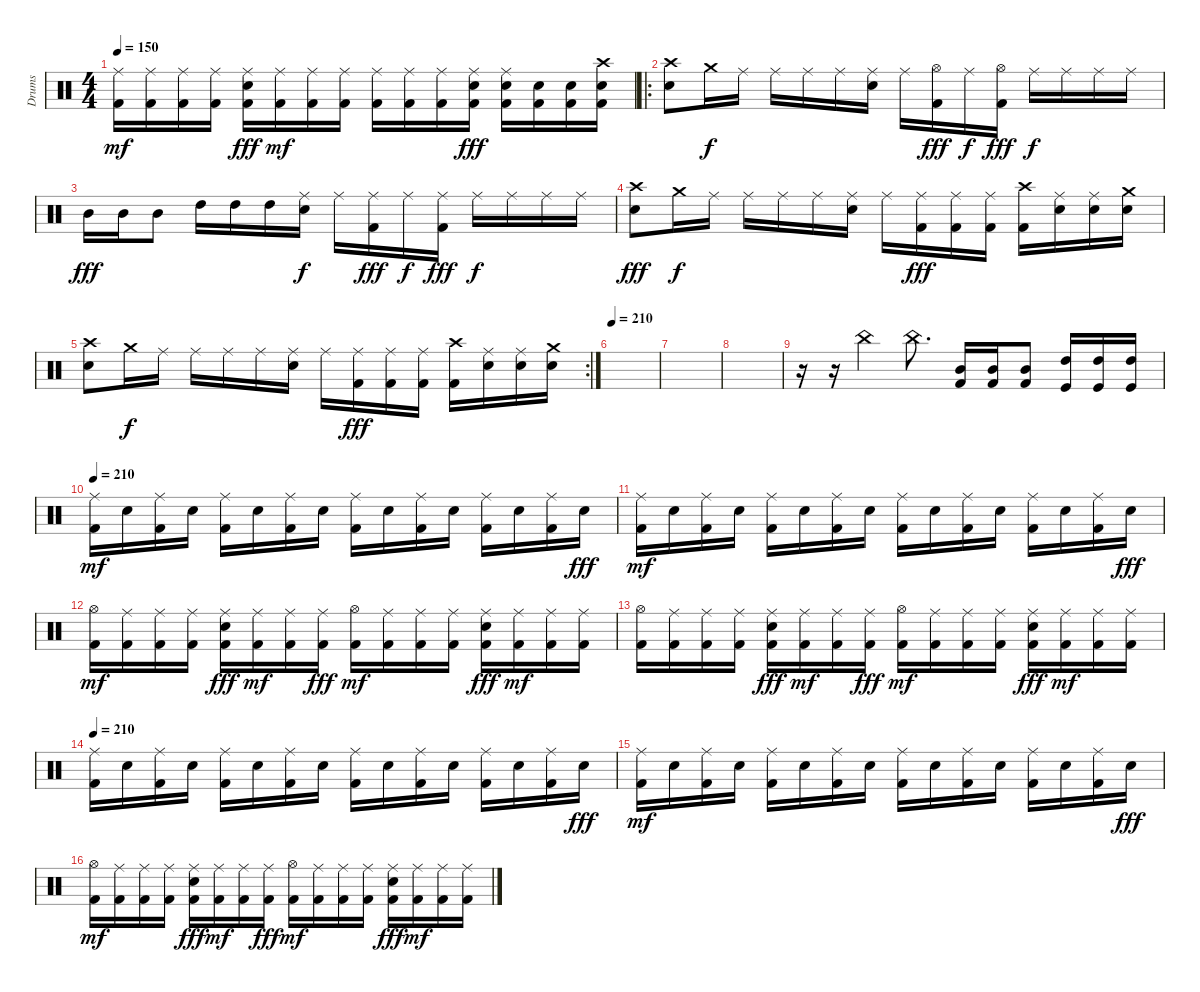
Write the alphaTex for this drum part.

\track ("Drums" "Drums") {instrument percussion}
\staff {score}
\articulation defaults
\ts (4 4)
\tempo 150
\clef neutral
\ks c
("Ride (middle)" "Kick (hit) 2").16{dy mf} ("Ride (middle)" "Kick (hit) 2").16 ("Ride (middle)" "Kick (hit) 2").16 ("Ride (middle)" "Kick (hit) 2").16 ("Ride (middle)" "Snare (hit) 2" "Kick (hit) 2").16{dy fff} ("Ride (middle)" "Kick (hit) 2").16{dy mf} ("Ride (middle)" "Kick (hit) 2").16 ("Ride (middle)" "Kick (hit) 2").16 ("Ride (middle)" "Kick (hit) 2").16 ("Ride (middle)" "Kick (hit) 2").16 ("Ride (middle)" "Kick (hit) 2").16 ("Ride (middle)" "Electric Snare (hit)" "Kick (hit) 2").16{dy fff} ("Ride (middle)" "Electric Snare (hit)" "Kick (hit) 2").16 ("Electric Snare (hit)" "Kick (hit) 2").16 ("Electric Snare (hit)" "Kick (hit) 2").16 ("Crash high (hit)" "Electric Snare (hit)" "Kick (hit) 2").16 |
\ro
("Crash high (hit)" "Snare (hit) 2").8 "Crash medium (hit)".16{dy f} "Ride (middle)".16 "Ride (middle)".16 "Ride (middle)".16 "Ride (middle)".16 ("Ride (middle)" "Snare (hit) 2").16 "Ride (middle)".16 ("Hi-Hat (open)" "Kick (hit) 2").16{dy fff} "Ride (middle)".16{dy f} ("Hi-Hat (open)" "Kick (hit) 2").16{dy fff} "Ride (middle)".16{dy f} "Ride (middle)".16 "Ride (middle)".16 "Ride (middle)".16 |
"Mid Tom (hit)".16{dy fff} "Mid Tom (hit)".16 "Mid Tom (hit)".8 "High Tom (hit)".16 "High Tom (hit)".16 "High Tom (hit)".16 ("Ride (middle)" "Snare (hit) 2").16{dy f} "Ride (middle)".16 ("Ride (middle)" "Kick (hit) 2").16{dy fff} "Ride (middle)".16{dy f} ("Ride (middle)" "Kick (hit) 2").16{dy fff} "Ride (middle)".16{dy f} "Ride (middle)".16 "Ride (middle)".16 "Ride (middle)".16 |
("Crash high (hit)" "Snare (hit) 2").8{dy fff} "Crash medium (hit)".16{dy f} "Ride (middle)".16 "Ride (middle)".16 "Ride (middle)".16 "Ride (middle)".16 ("Ride (middle)" "Snare (hit) 2").16 "Ride (middle)".16 ("Ride (middle)" "Kick (hit) 2").16{dy fff} ("Ride (middle)" "Kick (hit) 2").16 ("Ride (middle)" "Kick (hit) 2").16 ("Crash high (hit)" "Kick (hit) 2").16 ("Ride (middle)" "Electric Snare (hit)").16 ("Ride (middle)" "Electric Snare (hit)").16 ("Crash medium (hit)" "Snare (hit) 2").16 |
\rc 2
("Crash high (hit)" "Snare (hit) 2").8 "Crash medium (hit)".16{dy f} "Ride (middle)".16 "Ride (middle)".16 "Ride (middle)".16 "Ride (middle)".16 ("Ride (middle)" "Snare (hit) 2").16 "Ride (middle)".16 ("Ride (middle)" "Kick (hit) 2").16{dy fff} ("Ride (middle)" "Kick (hit) 2").16 ("Ride (middle)" "Kick (hit) 2").16 ("Crash high (hit)" "Kick (hit) 2").16 ("Ride (middle)" "Electric Snare (hit)").16 ("Ride (middle)" "Electric Snare (hit)").16 ("Crash medium (hit)" "Snare (hit) 2").16 |
\tempo 210
|
|
|
r.16 r.16 "China (hit)".4 "China (hit)".8{d} ("Mid Tom (hit)" "Kick (hit) 2").16 ("Mid Tom (hit)" "Kick (hit) 2").16 ("Mid Tom (hit)" "Kick (hit) 2").8 ("High Tom (hit)" "Kick (hit)").16 ("High Tom (hit)" "Kick (hit)").16 ("High Tom (hit)" "Kick (hit)").16 |
\tempo 210
("Ride (middle)" "Kick (hit) 2").16{dy mf} "Snare (hit) 2".16 ("Ride (middle)" "Kick (hit) 2").16 "Snare (hit) 2".16 ("Ride (middle)" "Kick (hit) 2").16 "Snare (hit) 2".16 ("Ride (middle)" "Kick (hit) 2").16 "Snare (hit) 2".16 ("Ride (middle)" "Kick (hit) 2").16 "Snare (hit) 2".16 ("Ride (middle)" "Kick (hit) 2").16 "Snare (hit) 2".16 ("Ride (middle)" "Kick (hit) 2").16 "Snare (hit) 2".16 ("Ride (middle)" "Kick (hit) 2").16 "Snare (hit) 2".16{dy fff} |
("Ride (middle)" "Kick (hit) 2").16{dy mf} "Snare (hit) 2".16 ("Ride (middle)" "Kick (hit) 2").16 "Snare (hit) 2".16 ("Ride (middle)" "Kick (hit) 2").16 "Snare (hit) 2".16 ("Ride (middle)" "Kick (hit) 2").16 "Snare (hit) 2".16 ("Ride (middle)" "Kick (hit) 2").16 "Snare (hit) 2".16 ("Ride (middle)" "Kick (hit) 2").16 "Snare (hit) 2".16 ("Ride (middle)" "Kick (hit) 2").16 "Snare (hit) 2".16 ("Ride (middle)" "Kick (hit) 2").16 "Snare (hit) 2".16{dy fff} |
("Hi-Hat (open)" "Kick (hit) 2").16{dy mf} ("Ride (middle)" "Kick (hit) 2").16 ("Ride (middle)" "Kick (hit) 2").16 ("Ride (middle)" "Kick (hit) 2").16 ("Ride (middle)" "Snare (hit) 2" "Kick (hit) 2").16{dy fff} ("Ride (middle)" "Kick (hit) 2").16{dy mf} ("Ride (middle)" "Kick (hit) 2").16 ("Ride (middle)" "Kick (hit) 2").16{dy fff} ("Hi-Hat (open)" "Kick (hit) 2").16{dy mf} ("Ride (middle)" "Kick (hit) 2").16 ("Ride (middle)" "Kick (hit) 2").16 ("Ride (middle)" "Kick (hit) 2").16 ("Ride (middle)" "Snare (hit) 2" "Kick (hit) 2").16{dy fff} ("Ride (middle)" "Kick (hit) 2").16{dy mf} ("Ride (middle)" "Kick (hit) 2").16 ("Ride (middle)" "Kick (hit) 2").16 |
("Hi-Hat (open)" "Kick (hit) 2").16 ("Ride (middle)" "Kick (hit) 2").16 ("Ride (middle)" "Kick (hit) 2").16 ("Ride (middle)" "Kick (hit) 2").16 ("Ride (middle)" "Snare (hit) 2" "Kick (hit) 2").16{dy fff} ("Ride (middle)" "Kick (hit) 2").16{dy mf} ("Ride (middle)" "Kick (hit) 2").16 ("Ride (middle)" "Kick (hit) 2").16{dy fff} ("Hi-Hat (open)" "Kick (hit) 2").16{dy mf} ("Ride (middle)" "Kick (hit) 2").16 ("Ride (middle)" "Kick (hit) 2").16 ("Ride (middle)" "Kick (hit) 2").16 ("Ride (middle)" "Snare (hit) 2" "Kick (hit) 2").16{dy fff} ("Ride (middle)" "Kick (hit) 2").16{dy mf} ("Ride (middle)" "Kick (hit) 2").16 ("Ride (middle)" "Kick (hit) 2").16 |
\tempo 210
("Ride (middle)" "Kick (hit) 2").16 "Snare (hit) 2".16 ("Ride (middle)" "Kick (hit) 2").16 "Snare (hit) 2".16 ("Ride (middle)" "Kick (hit) 2").16 "Snare (hit) 2".16 ("Ride (middle)" "Kick (hit) 2").16 "Snare (hit) 2".16 ("Ride (middle)" "Kick (hit) 2").16 "Snare (hit) 2".16 ("Ride (middle)" "Kick (hit) 2").16 "Snare (hit) 2".16 ("Ride (middle)" "Kick (hit) 2").16 "Snare (hit) 2".16 ("Ride (middle)" "Kick (hit) 2").16 "Snare (hit) 2".16{dy fff} |
("Ride (middle)" "Kick (hit) 2").16{dy mf} "Snare (hit) 2".16 ("Ride (middle)" "Kick (hit) 2").16 "Snare (hit) 2".16 ("Ride (middle)" "Kick (hit) 2").16 "Snare (hit) 2".16 ("Ride (middle)" "Kick (hit) 2").16 "Snare (hit) 2".16 ("Ride (middle)" "Kick (hit) 2").16 "Snare (hit) 2".16 ("Ride (middle)" "Kick (hit) 2").16 "Snare (hit) 2".16 ("Ride (middle)" "Kick (hit) 2").16 "Snare (hit) 2".16 ("Ride (middle)" "Kick (hit) 2").16 "Snare (hit) 2".16{dy fff} |
("Hi-Hat (open)" "Kick (hit) 2").16{dy mf} ("Ride (middle)" "Kick (hit) 2").16 ("Ride (middle)" "Kick (hit) 2").16 ("Ride (middle)" "Kick (hit) 2").16 ("Ride (middle)" "Snare (hit) 2" "Kick (hit) 2").16{dy fff} ("Ride (middle)" "Kick (hit) 2").16{dy mf} ("Ride (middle)" "Kick (hit) 2").16 ("Ride (middle)" "Kick (hit) 2").16{dy fff} ("Hi-Hat (open)" "Kick (hit) 2").16{dy mf} ("Ride (middle)" "Kick (hit) 2").16 ("Ride (middle)" "Kick (hit) 2").16 ("Ride (middle)" "Kick (hit) 2").16 ("Ride (middle)" "Snare (hit) 2" "Kick (hit) 2").16{dy fff} ("Ride (middle)" "Kick (hit) 2").16{dy mf} ("Ride (middle)" "Kick (hit) 2").16 ("Ride (middle)" "Kick (hit) 2").16
